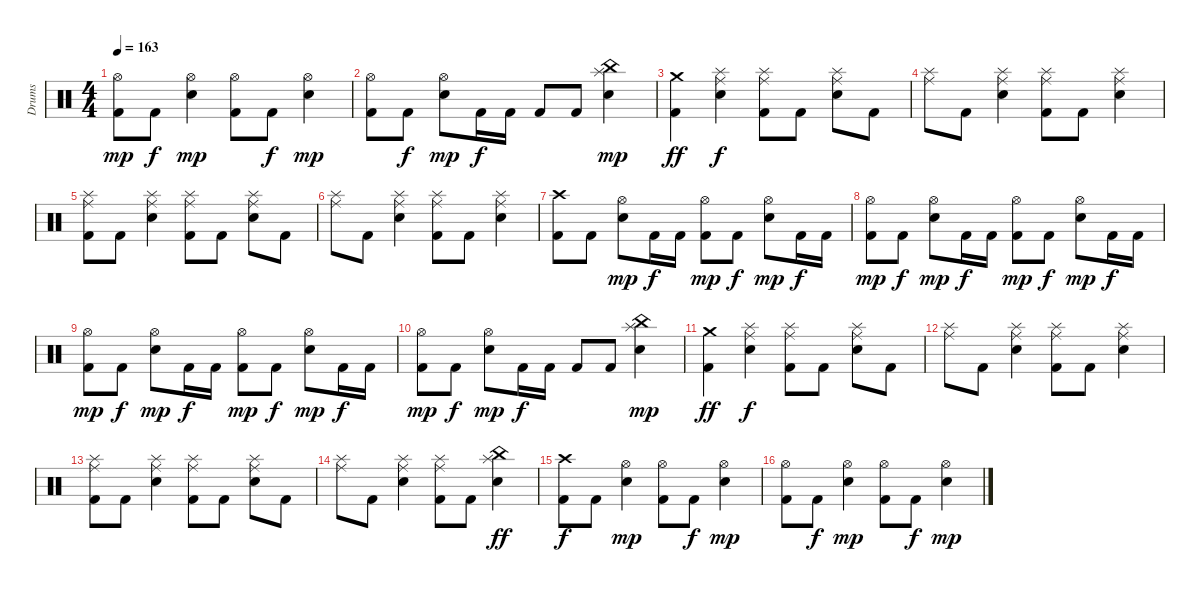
\track ("Drums" "Drums") {instrument percussion}
\staff {score}
\articulation defaults
\ts (4 4)
\tempo 163
\clef neutral
\ks c
("Hi-Hat (open)" "Kick (hit) 2").8{dy mp} "Kick (hit) 2".8{dy f} ("Hi-Hat (open)" "Electric Snare (hit)").4{dy mp} ("Hi-Hat (open)" "Kick (hit) 2").8 "Kick (hit) 2".8{dy f} ("Hi-Hat (open)" "Electric Snare (hit)").4{dy mp} |
("Hi-Hat (open)" "Kick (hit) 2").8 "Kick (hit) 2".8{dy f} ("Hi-Hat (open)" "Electric Snare (hit)").8{dy mp} "Kick (hit) 2".16{dy f} "Kick (hit) 2".16 "Kick (hit) 2".8 "Kick (hit) 2".8 ("China (hit)" "Splash (hit)" "Electric Snare (hit)").4{dy mp} |
("Crash medium (hit)" "Kick (hit) 2").4{dy ff} ("Splash (hit)" "Ride (middle)" "Electric Snare (hit)").4{dy f} ("Splash (hit)" "Ride (middle)" "Kick (hit) 2").8 "Kick (hit) 2".8 ("Splash (hit)" "Ride (middle)" "Electric Snare (hit)").8 "Kick (hit) 2".8 |
("Splash (hit)" "Ride (middle)").8 "Kick (hit) 2".8 ("Splash (hit)" "Ride (middle)" "Electric Snare (hit)").4 ("Splash (hit)" "Ride (middle)" "Kick (hit) 2").8 "Kick (hit) 2".8 ("Splash (hit)" "Ride (middle)" "Electric Snare (hit)").4 |
("Splash (hit)" "Ride (middle)" "Kick (hit) 2").8 "Kick (hit) 2".8 ("Splash (hit)" "Ride (middle)" "Electric Snare (hit)").4 ("Splash (hit)" "Ride (middle)" "Kick (hit) 2").8 "Kick (hit) 2".8 ("Splash (hit)" "Ride (middle)" "Electric Snare (hit)").8 "Kick (hit) 2".8 |
("Splash (hit)" "Ride (middle)").8 "Kick (hit) 2".8 ("Splash (hit)" "Ride (middle)" "Electric Snare (hit)").4 ("Splash (hit)" "Ride (middle)" "Kick (hit) 2").8 "Kick (hit) 2".8 ("Splash (hit)" "Ride (middle)" "Electric Snare (hit)").4 |
("Crash high (hit)" "Kick (hit) 2").8 "Kick (hit) 2".8 ("Hi-Hat (open)" "Electric Snare (hit)").8{dy mp} "Kick (hit) 2".16{dy f} "Kick (hit) 2".16 ("Hi-Hat (open)" "Kick (hit) 2").8{dy mp} "Kick (hit) 2".8{dy f} ("Hi-Hat (open)" "Electric Snare (hit)").8{dy mp} "Kick (hit) 2".16{dy f} "Kick (hit) 2".16 |
("Hi-Hat (open)" "Kick (hit) 2").8{dy mp} "Kick (hit) 2".8{dy f} ("Hi-Hat (open)" "Electric Snare (hit)").8{dy mp} "Kick (hit) 2".16{dy f} "Kick (hit) 2".16 ("Hi-Hat (open)" "Kick (hit) 2").8{dy mp} "Kick (hit) 2".8{dy f} ("Hi-Hat (open)" "Electric Snare (hit)").8{dy mp} "Kick (hit) 2".16{dy f} "Kick (hit) 2".16 |
("Hi-Hat (open)" "Kick (hit) 2").8{dy mp} "Kick (hit) 2".8{dy f} ("Hi-Hat (open)" "Electric Snare (hit)").8{dy mp} "Kick (hit) 2".16{dy f} "Kick (hit) 2".16 ("Hi-Hat (open)" "Kick (hit) 2").8{dy mp} "Kick (hit) 2".8{dy f} ("Hi-Hat (open)" "Electric Snare (hit)").8{dy mp} "Kick (hit) 2".16{dy f} "Kick (hit) 2".16 |
("Hi-Hat (open)" "Kick (hit) 2").8{dy mp} "Kick (hit) 2".8{dy f} ("Hi-Hat (open)" "Electric Snare (hit)").8{dy mp} "Kick (hit) 2".16{dy f} "Kick (hit) 2".16 "Kick (hit) 2".8 "Kick (hit) 2".8 ("China (hit)" "Splash (hit)" "Electric Snare (hit)").4{dy mp} |
("Crash medium (hit)" "Kick (hit) 2").4{dy ff} ("Splash (hit)" "Ride (middle)" "Electric Snare (hit)").4{dy f} ("Splash (hit)" "Ride (middle)" "Kick (hit) 2").8 "Kick (hit) 2".8 ("Splash (hit)" "Ride (middle)" "Electric Snare (hit)").8 "Kick (hit) 2".8 |
("Splash (hit)" "Ride (middle)").8 "Kick (hit) 2".8 ("Splash (hit)" "Ride (middle)" "Electric Snare (hit)").4 ("Splash (hit)" "Ride (middle)" "Kick (hit) 2").8 "Kick (hit) 2".8 ("Splash (hit)" "Ride (middle)" "Electric Snare (hit)").4 |
("Splash (hit)" "Ride (middle)" "Kick (hit) 2").8 "Kick (hit) 2".8 ("Splash (hit)" "Ride (middle)" "Electric Snare (hit)").4 ("Splash (hit)" "Ride (middle)" "Kick (hit) 2").8 "Kick (hit) 2".8 ("Splash (hit)" "Ride (middle)" "Electric Snare (hit)").8 "Kick (hit) 2".8 |
("Splash (hit)" "Ride (middle)").8 "Kick (hit) 2".8 ("Splash (hit)" "Ride (middle)" "Electric Snare (hit)").4 ("Splash (hit)" "Ride (middle)" "Kick (hit) 2").8 "Kick (hit) 2".8 ("China (hit)" "Splash (hit)" "Electric Snare (hit)").4{dy ff} |
("Crash high (hit)" "Kick (hit) 2").8{dy f} "Kick (hit) 2".8 ("Hi-Hat (open)" "Electric Snare (hit)").4{dy mp} ("Hi-Hat (open)" "Kick (hit) 2").8 "Kick (hit) 2".8{dy f} ("Hi-Hat (open)" "Electric Snare (hit)").4{dy mp} |
("Hi-Hat (open)" "Kick (hit) 2").8 "Kick (hit) 2".8{dy f} ("Hi-Hat (open)" "Electric Snare (hit)").4{dy mp} ("Hi-Hat (open)" "Kick (hit) 2").8 "Kick (hit) 2".8{dy f} ("Hi-Hat (open)" "Electric Snare (hit)").4{dy mp}
